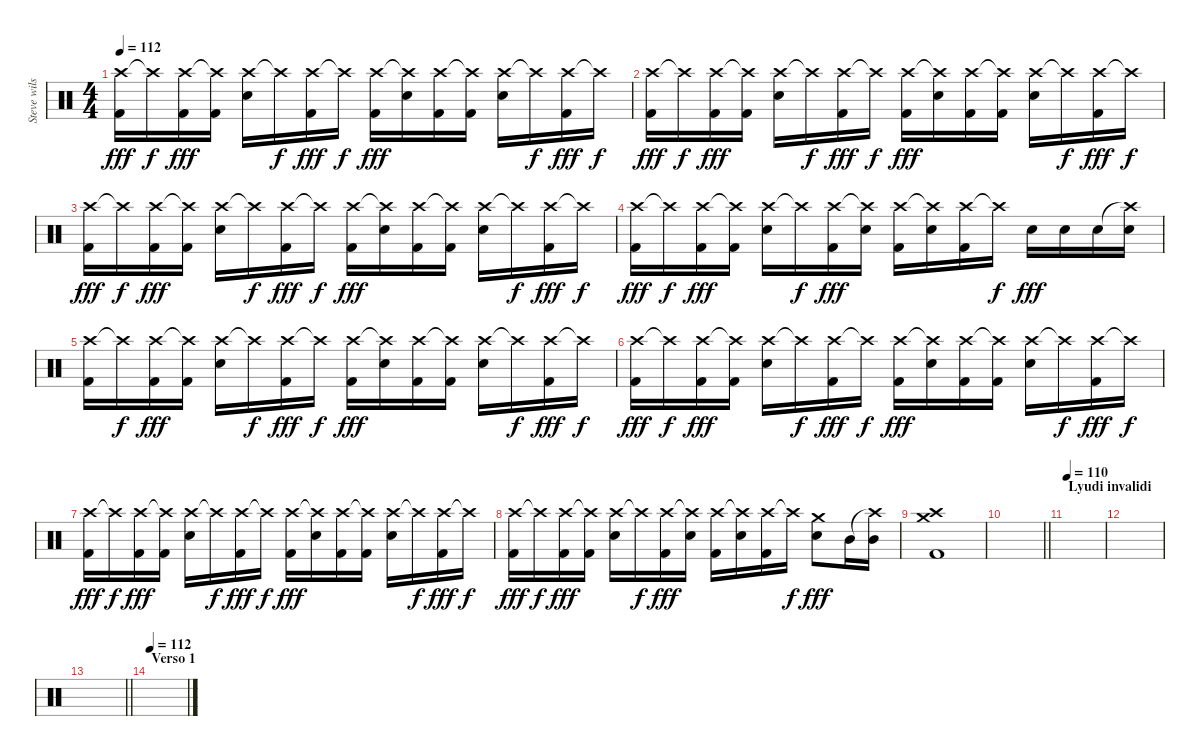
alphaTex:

\track ("Steve wilson" "Steve wils") {instrument percussion}
\staff {score}
\articulation defaults
\ts (4 4)
\tempo 112
\clef neutral
\ks c
("Crash high (hit)" "Kick (hit) 2").16{dy fff} "Crash high (hit)"{t}.16{dy f} ("Crash high (hit)" "Kick (hit) 2").16{dy fff} ("Crash high (hit)"{t} "Kick (hit) 2").16 ("Crash high (hit)" "Electric Snare (hit)").16 "Crash high (hit)"{t}.16{dy f} ("Crash high (hit)" "Kick (hit) 2").16{dy fff} "Crash high (hit)"{t}.16{dy f} ("Crash high (hit)" "Kick (hit) 2").16{dy fff} ("Crash high (hit)"{t} "Electric Snare (hit)").16 ("Crash high (hit)" "Kick (hit) 2").16 ("Crash high (hit)"{t} "Kick (hit) 2").16 ("Crash high (hit)" "Electric Snare (hit)").16 "Crash high (hit)"{t}.16{dy f} ("Crash high (hit)" "Kick (hit) 2").16{dy fff} "Crash high (hit)"{t}.16{dy f} |
("Crash high (hit)" "Kick (hit) 2").16{dy fff} "Crash high (hit)"{t}.16{dy f} ("Crash high (hit)" "Kick (hit) 2").16{dy fff} ("Crash high (hit)"{t} "Kick (hit) 2").16 ("Crash high (hit)" "Electric Snare (hit)").16 "Crash high (hit)"{t}.16{dy f} ("Crash high (hit)" "Kick (hit) 2").16{dy fff} "Crash high (hit)"{t}.16{dy f} ("Crash high (hit)" "Kick (hit) 2").16{dy fff} ("Crash high (hit)"{t} "Electric Snare (hit)").16 ("Crash high (hit)" "Kick (hit) 2").16 ("Crash high (hit)"{t} "Kick (hit) 2").16 ("Crash high (hit)" "Electric Snare (hit)").16 "Crash high (hit)"{t}.16{dy f} ("Crash high (hit)" "Kick (hit) 2").16{dy fff} "Crash high (hit)"{t}.16{dy f} |
("Crash high (hit)" "Kick (hit) 2").16{dy fff} "Crash high (hit)"{t}.16{dy f} ("Crash high (hit)" "Kick (hit) 2").16{dy fff} ("Crash high (hit)"{t} "Kick (hit) 2").16 ("Crash high (hit)" "Electric Snare (hit)").16 "Crash high (hit)"{t}.16{dy f} ("Crash high (hit)" "Kick (hit) 2").16{dy fff} "Crash high (hit)"{t}.16{dy f} ("Crash high (hit)" "Kick (hit) 2").16{dy fff} ("Crash high (hit)"{t} "Electric Snare (hit)").16 ("Crash high (hit)" "Kick (hit) 2").16 ("Crash high (hit)"{t} "Kick (hit) 2").16 ("Crash high (hit)" "Electric Snare (hit)").16 "Crash high (hit)"{t}.16{dy f} ("Crash high (hit)" "Kick (hit) 2").16{dy fff} "Crash high (hit)"{t}.16{dy f} |
("Crash high (hit)" "Kick (hit) 2").16{dy fff} "Crash high (hit)"{t}.16{dy f} ("Crash high (hit)" "Kick (hit) 2").16{dy fff} ("Crash high (hit)"{t} "Kick (hit) 2").16 ("Crash high (hit)" "Electric Snare (hit)").16 "Crash high (hit)"{t}.16{dy f} ("Crash high (hit)" "Kick (hit) 2").16{dy fff} ("Crash high (hit)"{t} "Electric Snare (hit)").16 ("Crash high (hit)" "Kick (hit) 2").16 ("Crash high (hit)"{t} "Electric Snare (hit)").16 ("Crash high (hit)" "Kick (hit) 2").16 "Crash high (hit)"{t}.16{dy f} "Electric Snare (hit)".16{dy fff} "Electric Snare (hit)".16 "Electric Snare (hit)".16 ("Crash high (hit)"{t} "Electric Snare (hit)").16 |
("Crash high (hit)" "Kick (hit) 2").16 "Crash high (hit)"{t}.16{dy f} ("Crash high (hit)" "Kick (hit) 2").16{dy fff} ("Crash high (hit)"{t} "Kick (hit) 2").16 ("Crash high (hit)" "Electric Snare (hit)").16 "Crash high (hit)"{t}.16{dy f} ("Crash high (hit)" "Kick (hit) 2").16{dy fff} "Crash high (hit)"{t}.16{dy f} ("Crash high (hit)" "Kick (hit) 2").16{dy fff} ("Crash high (hit)"{t} "Electric Snare (hit)").16 ("Crash high (hit)" "Kick (hit) 2").16 ("Crash high (hit)"{t} "Kick (hit) 2").16 ("Crash high (hit)" "Electric Snare (hit)").16 "Crash high (hit)"{t}.16{dy f} ("Crash high (hit)" "Kick (hit) 2").16{dy fff} "Crash high (hit)"{t}.16{dy f} |
("Crash high (hit)" "Kick (hit) 2").16{dy fff} "Crash high (hit)"{t}.16{dy f} ("Crash high (hit)" "Kick (hit) 2").16{dy fff} ("Crash high (hit)"{t} "Kick (hit) 2").16 ("Crash high (hit)" "Electric Snare (hit)").16 "Crash high (hit)"{t}.16{dy f} ("Crash high (hit)" "Kick (hit) 2").16{dy fff} "Crash high (hit)"{t}.16{dy f} ("Crash high (hit)" "Kick (hit) 2").16{dy fff} ("Crash high (hit)"{t} "Electric Snare (hit)").16 ("Crash high (hit)" "Kick (hit) 2").16 ("Crash high (hit)"{t} "Kick (hit) 2").16 ("Crash high (hit)" "Electric Snare (hit)").16 "Crash high (hit)"{t}.16{dy f} ("Crash high (hit)" "Kick (hit) 2").16{dy fff} "Crash high (hit)"{t}.16{dy f} |
("Crash high (hit)" "Kick (hit) 2").16{dy fff} "Crash high (hit)"{t}.16{dy f} ("Crash high (hit)" "Kick (hit) 2").16{dy fff} ("Crash high (hit)"{t} "Kick (hit) 2").16 ("Crash high (hit)" "Electric Snare (hit)").16 "Crash high (hit)"{t}.16{dy f} ("Crash high (hit)" "Kick (hit) 2").16{dy fff} "Crash high (hit)"{t}.16{dy f} ("Crash high (hit)" "Kick (hit) 2").16{dy fff} ("Crash high (hit)"{t} "Electric Snare (hit)").16 ("Crash high (hit)" "Kick (hit) 2").16 ("Crash high (hit)"{t} "Kick (hit) 2").16 ("Crash high (hit)" "Electric Snare (hit)").16 "Crash high (hit)"{t}.16{dy f} ("Crash high (hit)" "Kick (hit) 2").16{dy fff} "Crash high (hit)"{t}.16{dy f} |
("Crash high (hit)" "Kick (hit) 2").16{dy fff} "Crash high (hit)"{t}.16{dy f} ("Crash high (hit)" "Kick (hit) 2").16{dy fff} ("Crash high (hit)"{t} "Kick (hit) 2").16 ("Crash high (hit)" "Electric Snare (hit)").16 "Crash high (hit)"{t}.16{dy f} ("Crash high (hit)" "Kick (hit) 2").16{dy fff} ("Crash high (hit)"{t} "Electric Snare (hit)").16 ("Crash high (hit)" "Kick (hit) 2").16 ("Crash high (hit)"{t} "Electric Snare (hit)").16 ("Crash high (hit)" "Kick (hit) 2").16 "Crash high (hit)"{t}.16{dy f} ("Crash medium (hit)" "Electric Snare (hit)").8{dy fff} "Mid Tom (hit)".16 ("Crash high (hit)"{t} "Mid Tom (hit)").16 |
("Crash high (hit)" "Crash medium (hit)" "Kick (hit) 2").1 |
\barLineRight lightlight
|
\section ("" "Lyudi invalidi")
\tempo 110
|
|
\barLineRight lightlight
|
\section ("" "Verso 1")
\tempo 112
